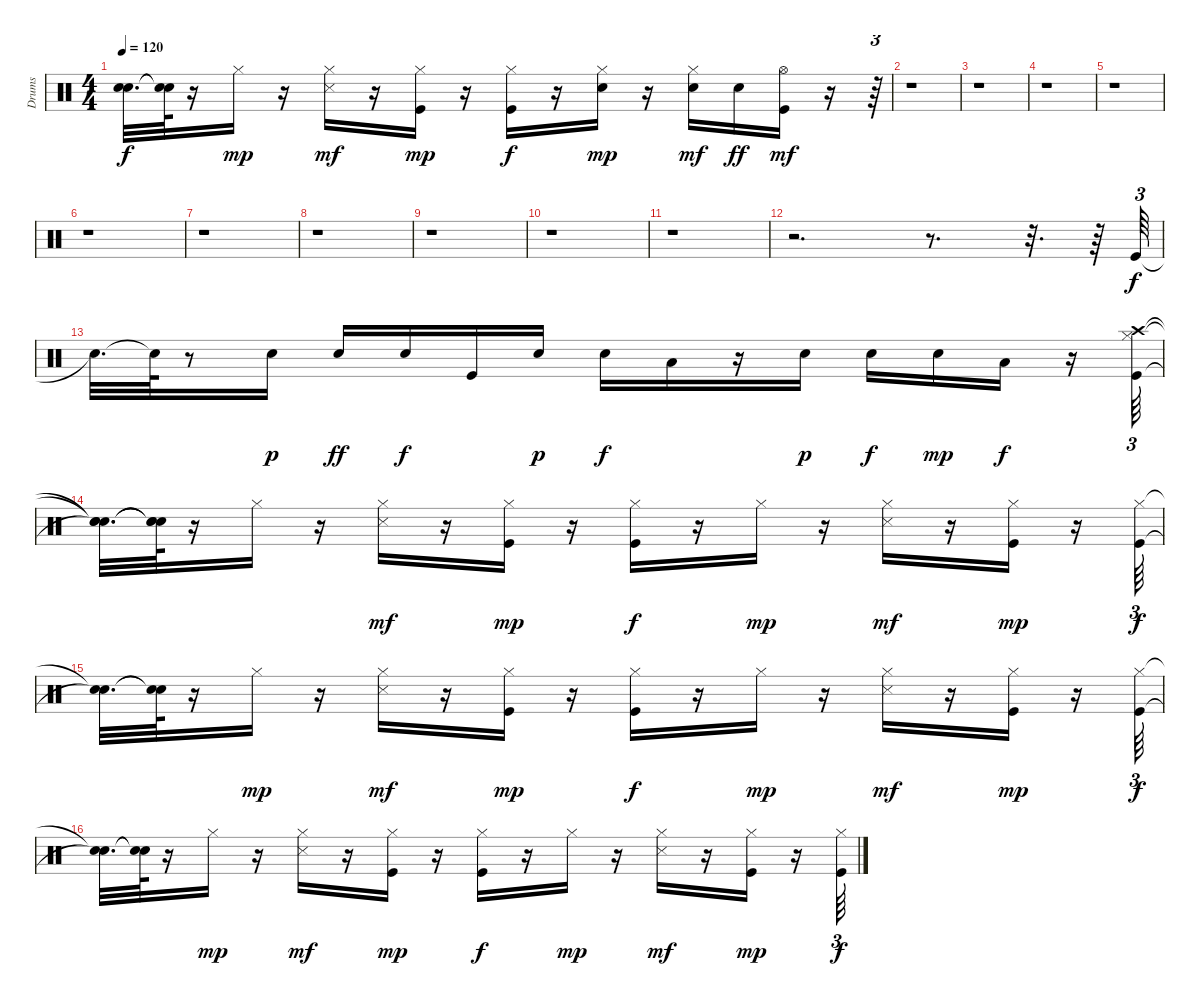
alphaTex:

\track ("Drums" "Drums") {instrument percussion}
\staff {score}
\articulation defaults
\ts (4 4)
\tempo 120
\clef neutral
\ks c
("Snare (hit)"{t} "Snare (hit)"{t}).32{d dy f} ("Snare (hit)"{t} "Snare (hit)"{t}).64 r.16 "Hi-Hat (closed)".16{dy mp} r.16 ("Hi-Hat (closed)" "Snare (side stick) 3").16{dy mf} r.16 ("Kick (hit)" "Hi-Hat (closed)").16{dy mp} r.16 ("Kick (hit)" "Hi-Hat (closed)").16{dy f} r.16 ("Snare (hit) 2" "Hi-Hat (closed)").16{dy mp} r.16 ("Snare (hit) 2" "Hi-Hat (closed)").16{dy mf} "Snare (hit) 2".16{dy ff} ("Kick (hit)" "Hi-Hat (open)").16{dy mf} r.16 r.64{tu (3 2)} |
r.1 |
r.1 |
r.1 |
r.1 |
r.1 |
r.1 |
r.1 |
r.1 |
r.1 |
r.1 |
r.2{d} r.8{d} r.32{d} r.64 "Kick (hit)".64{tu (3 2) dy f} |
"Snare (hit)"{t}.32{d} "Snare (hit)"{t}.64 r.8 "Snare (hit) 2".16{dy p} "Snare (hit) 2".16{dy ff} "Snare (hit) 2".16{dy f} "Kick (hit)".16 "Snare (hit) 2".16{dy p} "Snare (hit) 2".16{dy f} "Low Tom (hit)".16 r.16 "Snare (hit) 2".16{dy p} "Snare (hit) 2".16{dy f} "Snare (hit) 2".16{dy mp} "Low Floor Tom (hit)".16{dy f} r.16 ("Kick (hit)" "Hi-Hat (closed)" "Crash high (hit)").64{tu (3 2)} |
("Snare (hit)"{t} "Snare (hit)"{t} "Snare (hit)"{t}).32{d} ("Snare (hit)"{t} "Snare (hit)"{t} "Snare (hit)"{t}).64 r.16 "Hi-Hat (closed)".16 r.16 ("Hi-Hat (closed)" "Snare (side stick) 3").16{dy mf} r.16 ("Kick (hit)" "Hi-Hat (closed)").16{dy mp} r.16 ("Kick (hit)" "Hi-Hat (closed)").16{dy f} r.16 "Hi-Hat (closed)".16{dy mp} r.16 ("Hi-Hat (closed)" "Snare (side stick) 3").16{dy mf} r.16 ("Kick (hit)" "Hi-Hat (closed)").16{dy mp} r.16 ("Kick (hit)" "Hi-Hat (closed)").64{tu (3 2) dy f} |
("Snare (hit)"{t} "Snare (hit)"{t}).32{d} ("Snare (hit)"{t} "Snare (hit)"{t}).64 r.16 "Hi-Hat (closed)".16{dy mp} r.16 ("Hi-Hat (closed)" "Snare (side stick) 3").16{dy mf} r.16 ("Kick (hit)" "Hi-Hat (closed)").16{dy mp} r.16 ("Kick (hit)" "Hi-Hat (closed)").16{dy f} r.16 "Hi-Hat (closed)".16{dy mp} r.16 ("Hi-Hat (closed)" "Snare (side stick) 3").16{dy mf} r.16 ("Kick (hit)" "Hi-Hat (closed)").16{dy mp} r.16 ("Kick (hit)" "Hi-Hat (closed)").64{tu (3 2) dy f} |
("Snare (hit)"{t} "Snare (hit)"{t}).32{d} ("Snare (hit)"{t} "Snare (hit)"{t}).64 r.16 "Hi-Hat (closed)".16{dy mp} r.16 ("Hi-Hat (closed)" "Snare (side stick) 3").16{dy mf} r.16 ("Kick (hit)" "Hi-Hat (closed)").16{dy mp} r.16 ("Kick (hit)" "Hi-Hat (closed)").16{dy f} r.16 "Hi-Hat (closed)".16{dy mp} r.16 ("Hi-Hat (closed)" "Snare (side stick) 3").16{dy mf} r.16 ("Kick (hit)" "Hi-Hat (closed)").16{dy mp} r.16 ("Kick (hit)" "Hi-Hat (closed)").64{tu (3 2) dy f}
